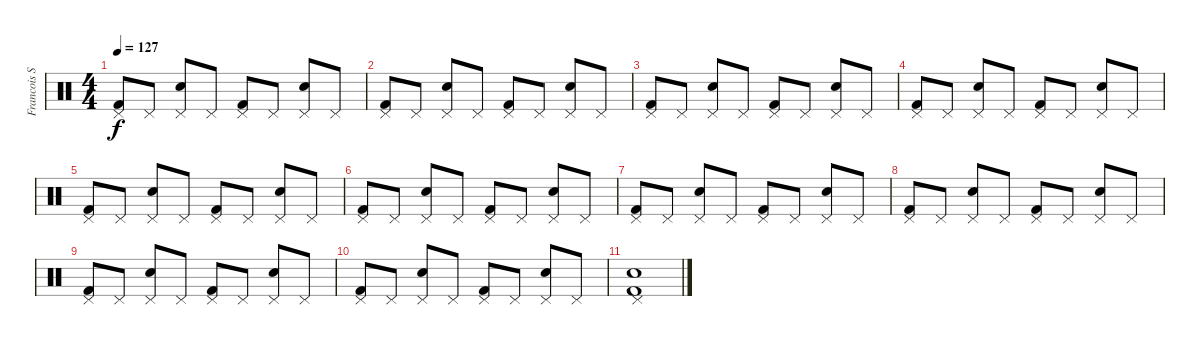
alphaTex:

\track ("Francois Soulier" "Francois S") {instrument percussion}
\staff {score}
\articulation defaults
\ts (4 4)
\tempo 127
\clef neutral
\ks c
("Kick (hit) 2" "Pedal Hi-Hat (hit)").8{dy f} "Pedal Hi-Hat (hit)".8 ("Snare (hit) 2" "Pedal Hi-Hat (hit)").8 "Pedal Hi-Hat (hit)".8 ("Kick (hit) 2" "Pedal Hi-Hat (hit)").8 "Pedal Hi-Hat (hit)".8 ("Snare (hit) 2" "Pedal Hi-Hat (hit)").8 "Pedal Hi-Hat (hit)".8 |
("Kick (hit) 2" "Pedal Hi-Hat (hit)").8 "Pedal Hi-Hat (hit)".8 ("Snare (hit) 2" "Pedal Hi-Hat (hit)").8 "Pedal Hi-Hat (hit)".8 ("Kick (hit) 2" "Pedal Hi-Hat (hit)").8 "Pedal Hi-Hat (hit)".8 ("Snare (hit) 2" "Pedal Hi-Hat (hit)").8 "Pedal Hi-Hat (hit)".8 |
("Kick (hit) 2" "Pedal Hi-Hat (hit)").8 "Pedal Hi-Hat (hit)".8 ("Snare (hit) 2" "Pedal Hi-Hat (hit)").8 "Pedal Hi-Hat (hit)".8 ("Kick (hit) 2" "Pedal Hi-Hat (hit)").8 "Pedal Hi-Hat (hit)".8 ("Snare (hit) 2" "Pedal Hi-Hat (hit)").8 "Pedal Hi-Hat (hit)".8 |
("Kick (hit) 2" "Pedal Hi-Hat (hit)").8 "Pedal Hi-Hat (hit)".8 ("Snare (hit) 2" "Pedal Hi-Hat (hit)").8 "Pedal Hi-Hat (hit)".8 ("Kick (hit) 2" "Pedal Hi-Hat (hit)").8 "Pedal Hi-Hat (hit)".8 ("Snare (hit) 2" "Pedal Hi-Hat (hit)").8 "Pedal Hi-Hat (hit)".8 |
("Kick (hit) 2" "Pedal Hi-Hat (hit)").8 "Pedal Hi-Hat (hit)".8 ("Snare (hit) 2" "Pedal Hi-Hat (hit)").8 "Pedal Hi-Hat (hit)".8 ("Kick (hit) 2" "Pedal Hi-Hat (hit)").8 "Pedal Hi-Hat (hit)".8 ("Snare (hit) 2" "Pedal Hi-Hat (hit)").8 "Pedal Hi-Hat (hit)".8 |
("Kick (hit) 2" "Pedal Hi-Hat (hit)").8 "Pedal Hi-Hat (hit)".8 ("Snare (hit) 2" "Pedal Hi-Hat (hit)").8 "Pedal Hi-Hat (hit)".8 ("Kick (hit) 2" "Pedal Hi-Hat (hit)").8 "Pedal Hi-Hat (hit)".8 ("Snare (hit) 2" "Pedal Hi-Hat (hit)").8 "Pedal Hi-Hat (hit)".8 |
("Kick (hit) 2" "Pedal Hi-Hat (hit)").8 "Pedal Hi-Hat (hit)".8 ("Snare (hit) 2" "Pedal Hi-Hat (hit)").8 "Pedal Hi-Hat (hit)".8 ("Kick (hit) 2" "Pedal Hi-Hat (hit)").8 "Pedal Hi-Hat (hit)".8 ("Snare (hit) 2" "Pedal Hi-Hat (hit)").8 "Pedal Hi-Hat (hit)".8 |
("Kick (hit) 2" "Pedal Hi-Hat (hit)").8 "Pedal Hi-Hat (hit)".8 ("Snare (hit) 2" "Pedal Hi-Hat (hit)").8 "Pedal Hi-Hat (hit)".8 ("Kick (hit) 2" "Pedal Hi-Hat (hit)").8 "Pedal Hi-Hat (hit)".8 ("Snare (hit) 2" "Pedal Hi-Hat (hit)").8 "Pedal Hi-Hat (hit)".8 |
("Kick (hit) 2" "Pedal Hi-Hat (hit)").8 "Pedal Hi-Hat (hit)".8 ("Snare (hit) 2" "Pedal Hi-Hat (hit)").8 "Pedal Hi-Hat (hit)".8 ("Kick (hit) 2" "Pedal Hi-Hat (hit)").8 "Pedal Hi-Hat (hit)".8 ("Snare (hit) 2" "Pedal Hi-Hat (hit)").8 "Pedal Hi-Hat (hit)".8 |
("Kick (hit) 2" "Pedal Hi-Hat (hit)").8 "Pedal Hi-Hat (hit)".8 ("Snare (hit) 2" "Pedal Hi-Hat (hit)").8 "Pedal Hi-Hat (hit)".8 ("Kick (hit) 2" "Pedal Hi-Hat (hit)").8 "Pedal Hi-Hat (hit)".8 ("Snare (hit) 2" "Pedal Hi-Hat (hit)").8 "Pedal Hi-Hat (hit)".8 |
("Snare (hit) 2" "Kick (hit) 2" "Pedal Hi-Hat (hit)").1
